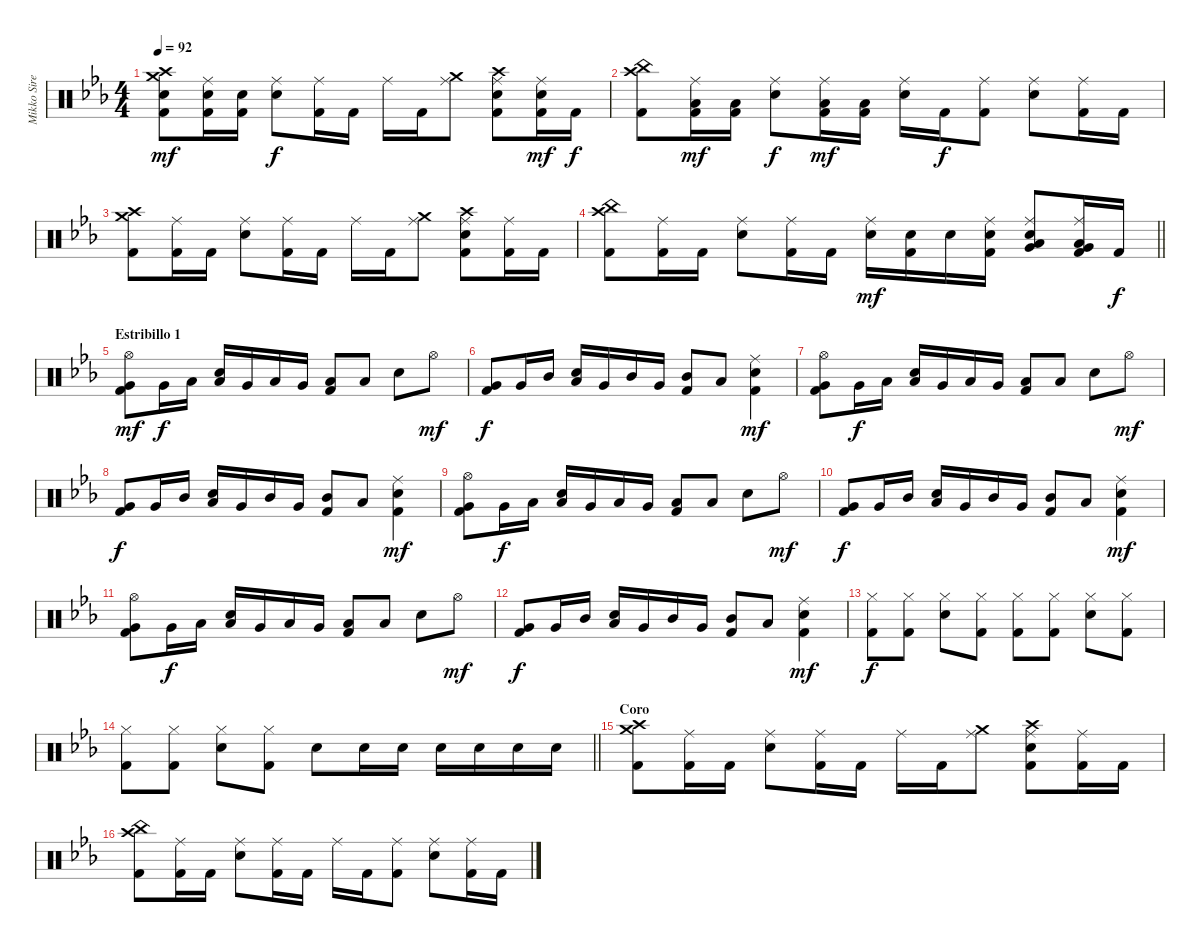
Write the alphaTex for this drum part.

\track ("Mikko Siren" "Mikko Sire") {instrument percussion}
\staff {score}
\articulation defaults
\ts (4 4)
\tempo 92
\clef neutral
\ks cminor
("Crash high (hit)" "Crash medium (hit)" "Snare (hit) 2" "Kick (hit) 2").8{dy mf} ("Ride (middle)" "Snare (hit) 2" "Kick (hit) 2").16 ("Snare (hit) 2" "Kick (hit) 2").16 ("Ride (middle)" "Snare (hit) 2").8{dy f} ("Ride (middle)" "Kick (hit) 2").16 "Kick (hit) 2".16 "Ride (middle)".16 "Kick (hit) 2".16 ("Ride (middle)" "Crash medium (hit)").8 ("Ride (middle)" "Crash high (hit)" "Snare (hit) 2" "Kick (hit) 2").8 ("Ride (middle)" "Snare (hit) 2" "Kick (hit) 2").16{dy mf} "Kick (hit) 2".16{dy f} |
("Crash high (hit)" "China (hit)" "Kick (hit) 2").8 ("Ride (middle)" "Low Floor Tom (hit)" "Kick (hit) 2").16{dy mf} ("Low Floor Tom (hit)" "Kick (hit) 2").16 ("Ride (middle)" "Snare (hit) 2").8{dy f} ("Ride (middle)" "Low Floor Tom (hit)" "Kick (hit) 2").16{dy mf} ("Low Floor Tom (hit)" "Kick (hit) 2").16 ("Ride (middle)" "Snare (hit) 2").16 "Kick (hit) 2".16{dy f} ("Ride (middle)" "Kick (hit) 2").8 ("Ride (middle)" "Snare (hit) 2").8 ("Ride (middle)" "Kick (hit) 2").16 "Kick (hit) 2".16 |
("Crash high (hit)" "Crash medium (hit)" "Kick (hit) 2").8 ("Ride (middle)" "Kick (hit) 2").16 "Kick (hit) 2".16 ("Ride (middle)" "Snare (hit) 2").8 ("Ride (middle)" "Kick (hit) 2").16 "Kick (hit) 2".16 "Ride (middle)".16 "Kick (hit) 2".16 ("Ride (middle)" "Crash medium (hit)").8 ("Ride (middle)" "Crash high (hit)" "Snare (hit) 2" "Kick (hit) 2").8 ("Ride (middle)" "Kick (hit) 2").16 "Kick (hit) 2".16 |
\barLineRight lightlight
("Crash high (hit)" "China (hit)" "Kick (hit) 2").8 ("Ride (middle)" "Kick (hit) 2").16 "Kick (hit) 2".16 ("Ride (middle)" "Snare (hit) 2").8 ("Ride (middle)" "Kick (hit) 2").16 "Kick (hit) 2".16 ("Ride (middle)" "Snare (hit) 2").16{dy mf} ("Snare (hit) 2" "Kick (hit) 2").16 "Snare (hit) 2".16 ("Ride (middle)" "Snare (hit) 2" "Kick (hit) 2").16 ("Ride (middle)" "Very Low Tom (hit)" "Low Floor Tom (hit)" "Snare (hit) 2").8 ("Ride (middle)" "Very Low Tom (hit)" "Low Floor Tom (hit)" "Kick (hit) 2").16 "Kick (hit) 2".16{dy f} |
\section ("" "Estribillo 1")
("Hi-Hat (open)" "Very Low Tom (hit)" "Kick (hit) 2").8{dy mf} "Very Low Tom (hit)".16{dy f} "Low Tom (hit)".16 ("Low Floor Tom (hit)" "Snare (hit) 2").16 "Very Low Tom (hit)".16 "Low Tom (hit)".16 "Very Low Tom (hit)".16 ("Low Tom (hit)" "Kick (hit) 2").8 "Low Floor Tom (hit)".8 "Snare (hit) 2".8 "Hi-Hat (open)".8{dy mf} |
("Very Low Tom (hit)" "Kick (hit) 2").8{dy f} "Very Low Tom (hit)".16 "Mid Tom (hit)".16 ("Low Floor Tom (hit)" "Snare (hit) 2").16 "Very Low Tom (hit)".16 "Mid Tom (hit)".16 "Very Low Tom (hit)".16 ("Mid Tom (hit)" "Kick (hit) 2").8 "Low Floor Tom (hit)".8 ("Ride (middle)" "Snare (hit) 2" "Kick (hit) 2").4{dy mf} |
("Hi-Hat (open)" "Very Low Tom (hit)" "Kick (hit) 2").8 "Very Low Tom (hit)".16{dy f} "Low Tom (hit)".16 ("Low Floor Tom (hit)" "Snare (hit) 2").16 "Very Low Tom (hit)".16 "Low Tom (hit)".16 "Very Low Tom (hit)".16 ("Low Tom (hit)" "Kick (hit) 2").8 "Low Floor Tom (hit)".8 "Snare (hit) 2".8 "Hi-Hat (open)".8{dy mf} |
("Very Low Tom (hit)" "Kick (hit) 2").8{dy f} "Very Low Tom (hit)".16 "Mid Tom (hit)".16 ("Low Floor Tom (hit)" "Snare (hit) 2").16 "Very Low Tom (hit)".16 "Mid Tom (hit)".16 "Very Low Tom (hit)".16 ("Mid Tom (hit)" "Kick (hit) 2").8 "Low Floor Tom (hit)".8 ("Ride (middle)" "Snare (hit) 2" "Kick (hit) 2").4{dy mf} |
("Hi-Hat (open)" "Very Low Tom (hit)" "Kick (hit) 2").8 "Very Low Tom (hit)".16{dy f} "Low Tom (hit)".16 ("Low Floor Tom (hit)" "Snare (hit) 2").16 "Very Low Tom (hit)".16 "Low Tom (hit)".16 "Very Low Tom (hit)".16 ("Low Tom (hit)" "Kick (hit) 2").8 "Low Floor Tom (hit)".8 "Snare (hit) 2".8 "Hi-Hat (open)".8{dy mf} |
("Very Low Tom (hit)" "Kick (hit) 2").8{dy f} "Very Low Tom (hit)".16 "Mid Tom (hit)".16 ("Low Floor Tom (hit)" "Snare (hit) 2").16 "Very Low Tom (hit)".16 "Mid Tom (hit)".16 "Very Low Tom (hit)".16 ("Mid Tom (hit)" "Kick (hit) 2").8 "Low Floor Tom (hit)".8 ("Ride (middle)" "Snare (hit) 2" "Kick (hit) 2").4{dy mf} |
("Hi-Hat (open)" "Very Low Tom (hit)" "Kick (hit) 2").8 "Very Low Tom (hit)".16{dy f} "Low Tom (hit)".16 ("Low Floor Tom (hit)" "Snare (hit) 2").16 "Very Low Tom (hit)".16 "Low Tom (hit)".16 "Very Low Tom (hit)".16 ("Low Tom (hit)" "Kick (hit) 2").8 "Low Floor Tom (hit)".8 "Snare (hit) 2".8 "Hi-Hat (open)".8{dy mf} |
("Very Low Tom (hit)" "Kick (hit) 2").8{dy f} "Very Low Tom (hit)".16 "Mid Tom (hit)".16 ("Low Floor Tom (hit)" "Snare (hit) 2").16 "Very Low Tom (hit)".16 "Mid Tom (hit)".16 "Very Low Tom (hit)".16 ("Mid Tom (hit)" "Kick (hit) 2").8 "Low Floor Tom (hit)".8 ("Ride (middle)" "Snare (hit) 2" "Kick (hit) 2").4{dy mf} |
("Hi-Hat (closed)" "Kick (hit) 2").8{dy f} ("Hi-Hat (closed)" "Kick (hit) 2").8 ("Hi-Hat (closed)" "Snare (hit) 2").8 ("Hi-Hat (closed)" "Kick (hit) 2").8 ("Hi-Hat (closed)" "Kick (hit) 2").8 ("Hi-Hat (closed)" "Kick (hit) 2").8 ("Hi-Hat (closed)" "Snare (hit) 2").8 ("Hi-Hat (closed)" "Kick (hit) 2").8 |
\barLineRight lightlight
("Hi-Hat (closed)" "Kick (hit) 2").8 ("Hi-Hat (closed)" "Kick (hit) 2").8 ("Hi-Hat (closed)" "Snare (hit) 2").8 ("Hi-Hat (closed)" "Kick (hit) 2").8 "Snare (hit) 2".8 "Snare (hit) 2".16 "Snare (hit) 2".16 "Snare (hit) 2".16 "Snare (hit) 2".16 "Snare (hit) 2".16 "Snare (hit) 2".16 |
\section ("" "Coro")
("Crash high (hit)" "Crash medium (hit)" "Kick (hit) 2").8 ("Ride (middle)" "Kick (hit) 2").16 "Kick (hit) 2".16 ("Ride (middle)" "Snare (hit) 2").8 ("Ride (middle)" "Kick (hit) 2").16 "Kick (hit) 2".16 "Ride (middle)".16 "Kick (hit) 2".16 ("Ride (middle)" "Crash medium (hit)").8 ("Ride (middle)" "Crash high (hit)" "Snare (hit) 2" "Kick (hit) 2").8 ("Ride (middle)" "Kick (hit) 2").16 "Kick (hit) 2".16 |
("Crash high (hit)" "China (hit)" "Kick (hit) 2").8 ("Ride (middle)" "Kick (hit) 2").16 "Kick (hit) 2".16 ("Ride (middle)" "Snare (hit) 2").8 ("Ride (middle)" "Kick (hit) 2").16 "Kick (hit) 2".16 "Ride (middle)".16 "Kick (hit) 2".16 ("Ride (middle)" "Kick (hit) 2").8 ("Ride (middle)" "Snare (hit) 2").8 ("Ride (middle)" "Kick (hit) 2").16 "Kick (hit) 2".16
